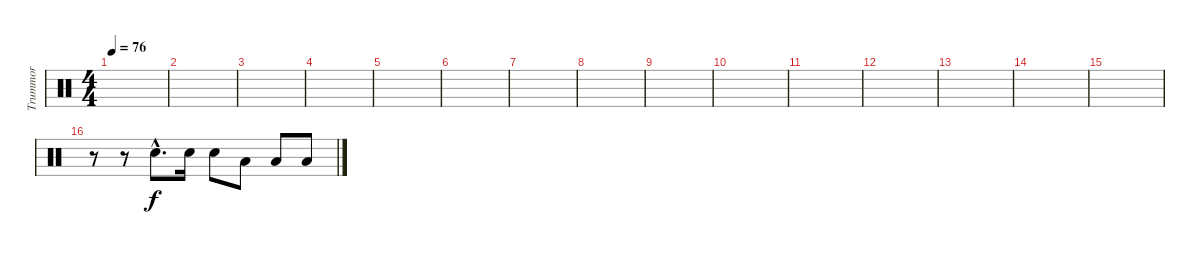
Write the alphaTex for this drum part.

\track ("Trummor" "Trummor") {instrument percussion}
\staff {score}
\articulation defaults
\ts (4 4)
\tempo 76
\clef neutral
\ks c
|
|
|
|
|
|
|
|
|
|
|
|
|
|
|
r.8 r.8 "Snare (hit) 2"{hac}.8{d} "Snare (hit) 2".16 "Snare (hit) 2".8 "Low Floor Tom (hit)".8 "Low Floor Tom (hit)".8 "Low Floor Tom (hit)".8
